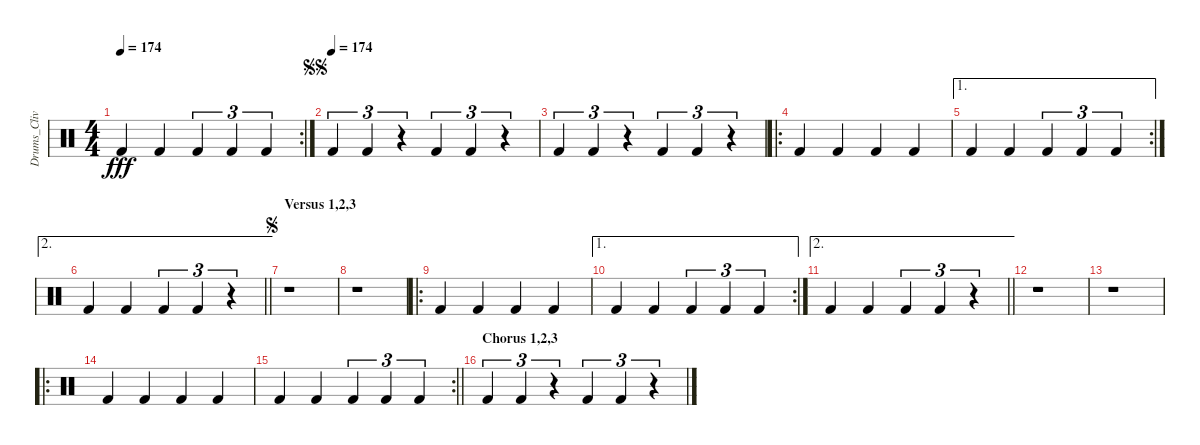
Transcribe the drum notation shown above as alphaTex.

\track ("Drums_CliveBurr" "Drums_Cliv") {instrument percussion}
\staff {score}
\articulation defaults
\rc 2
\ts (4 4)
\tempo 174
\clef neutral
\ks c "Kick (hit) 2".4{dy fff} "Kick (hit) 2".4 "Kick (hit) 2".4{tu (3 2)} "Kick (hit) 2".4{tu (3 2)} "Kick (hit) 2".4{tu (3 2)}
|
\jump segnosegno
\tempo (174)
"Kick (hit) 2".4{tu (3 2)} "Kick (hit) 2".4{tu (3 2)} r.4{tu (3 2)} "Kick (hit) 2".4{tu (3 2)} "Kick (hit) 2".4{tu (3 2)} r.4{tu (3 2)} |
"Kick (hit) 2".4{tu (3 2)} "Kick (hit) 2".4{tu (3 2)} r.4{tu (3 2)} "Kick (hit) 2".4{tu (3 2)} "Kick (hit) 2".4{tu (3 2)} r.4{tu (3 2)} |
\ro "Kick (hit) 2".4 "Kick (hit) 2".4 "Kick (hit) 2".4 "Kick (hit) 2".4
|
\ae 1
\rc 2 "Kick (hit) 2".4 "Kick (hit) 2".4 "Kick (hit) 2".4{tu (3 2)} "Kick (hit) 2".4{tu (3 2)} "Kick (hit) 2".4{tu (3 2)}
|
\ae 2
\barLineRight lightlight "Kick (hit) 2".4 "Kick (hit) 2".4 "Kick (hit) 2".4{tu (3 2)} "Kick (hit) 2".4{tu (3 2)}
r.4{tu (3 2)} |
\section ("" "Versus 1,2,3")
\jump segno
r.1 |
r.1 |
\ro "Kick (hit) 2".4 "Kick (hit) 2".4 "Kick (hit) 2".4 "Kick (hit) 2".4
|
\ae 1
\rc 2 "Kick (hit) 2".4 "Kick (hit) 2".4 "Kick (hit) 2".4{tu (3 2)} "Kick (hit) 2".4{tu (3 2)} "Kick (hit) 2".4{tu (3 2)}
|
\ae 2
\barLineRight lightlight "Kick (hit) 2".4 "Kick (hit) 2".4 "Kick (hit) 2".4{tu (3 2)} "Kick (hit) 2".4{tu (3 2)}
r.4{tu (3 2)} |
r.1 |
r.1 |
\ro "Kick (hit) 2".4 "Kick (hit) 2".4 "Kick (hit) 2".4 "Kick (hit) 2".4
|
\rc 2
\barLineRight lightlight "Kick (hit) 2".4 "Kick (hit) 2".4 "Kick (hit) 2".4{tu (3 2)} "Kick (hit) 2".4{tu (3 2)} "Kick (hit) 2".4{tu (3 2)}
|
\section ("" "Chorus 1,2,3")
"Kick (hit) 2".4{tu (3 2)} "Kick (hit) 2".4{tu (3 2)} r.4{tu (3 2)} "Kick (hit) 2".4{tu (3 2)} "Kick (hit) 2".4{tu (3 2)} r.4{tu (3 2)}
